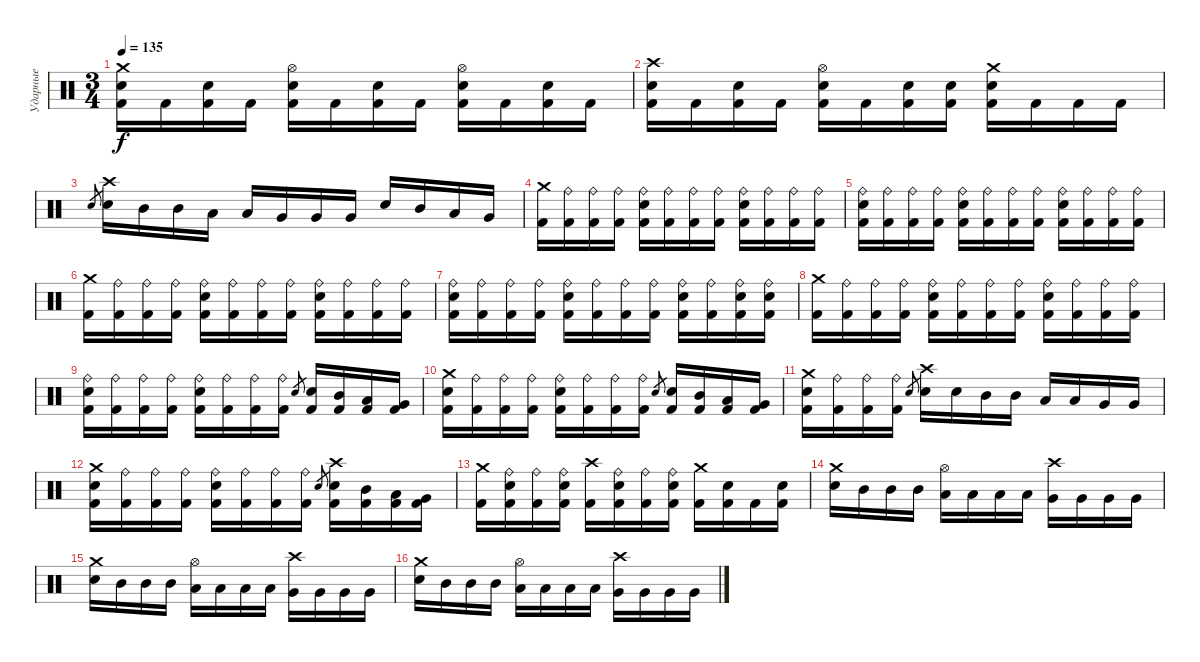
\track ("Ударные" "Ударные") {instrument percussion}
\staff {score}
\articulation defaults
\ts (3 4)
\tempo 135
\clef neutral
\ks c
("Crash medium (hit)" "Electric Snare (hit)" "Kick (hit) 2").16{dy f} "Kick (hit) 2".16 ("Electric Snare (hit)" "Kick (hit) 2").16 "Kick (hit) 2".16 ("Hi-Hat (open)" "Electric Snare (hit)" "Kick (hit) 2").16 "Kick (hit) 2".16 ("Electric Snare (hit)" "Kick (hit) 2").16 "Kick (hit) 2".16 ("Hi-Hat (open)" "Electric Snare (hit)" "Kick (hit) 2").16 "Kick (hit) 2".16 ("Electric Snare (hit)" "Kick (hit) 2").16 "Kick (hit) 2".16 |
("Crash high (hit)" "Electric Snare (hit)" "Kick (hit) 2").16 "Kick (hit) 2".16 ("Electric Snare (hit)" "Kick (hit) 2").16 "Kick (hit) 2".16 ("Hi-Hat (open)" "Electric Snare (hit)" "Kick (hit) 2").16 "Kick (hit) 2".16 ("Electric Snare (hit)" "Kick (hit) 2").16 ("Electric Snare (hit)" "Kick (hit) 2").16 ("Crash medium (hit)" "Electric Snare (hit)" "Kick (hit) 2").16 "Kick (hit) 2".16 "Kick (hit) 2".16 "Kick (hit) 2".16 |
"Electric Snare (hit)".8{gr} ("Crash high (hit)" "Electric Snare (hit)").16 "Mid Tom (hit)".16 "Mid Tom (hit)".16 "Low Tom (hit)".16 "Low Tom (hit)".16 "Very Low Tom (hit)".16 "Very Low Tom (hit)".16 "Very Low Tom (hit)".16 "Electric Snare (hit)".16 "Mid Tom (hit)".16 "Low Tom (hit)".16 "Very Low Tom (hit)".16 |
("Crash medium (hit)" "Kick (hit) 2").16 ("Ride (bell)" "Kick (hit) 2").16 ("Ride (bell)" "Kick (hit) 2").16 ("Ride (bell)" "Kick (hit) 2").16 ("Ride (bell)" "Electric Snare (hit)" "Kick (hit) 2").16 ("Ride (bell)" "Kick (hit) 2").16 ("Ride (bell)" "Kick (hit) 2").16 ("Ride (bell)" "Kick (hit) 2").16 ("Ride (bell)" "Electric Snare (hit)" "Kick (hit) 2").16 ("Ride (bell)" "Kick (hit) 2").16 ("Ride (bell)" "Kick (hit) 2").16 ("Ride (bell)" "Kick (hit) 2").16 |
("Ride (bell)" "Electric Snare (hit)" "Kick (hit) 2").16 ("Ride (bell)" "Kick (hit) 2").16 ("Ride (bell)" "Kick (hit) 2").16 ("Ride (bell)" "Kick (hit) 2").16 ("Ride (bell)" "Electric Snare (hit)" "Kick (hit) 2").16 ("Ride (bell)" "Kick (hit) 2").16 ("Ride (bell)" "Kick (hit) 2").16 ("Ride (bell)" "Kick (hit) 2").16 ("Ride (bell)" "Electric Snare (hit)" "Kick (hit) 2").16 ("Ride (bell)" "Kick (hit) 2").16 ("Ride (bell)" "Kick (hit) 2").16 ("Ride (bell)" "Kick (hit) 2").16 |
("Crash medium (hit)" "Kick (hit) 2").16 ("Ride (bell)" "Kick (hit) 2").16 ("Ride (bell)" "Kick (hit) 2").16 ("Ride (bell)" "Kick (hit) 2").16 ("Ride (bell)" "Electric Snare (hit)" "Kick (hit) 2").16 ("Ride (bell)" "Kick (hit) 2").16 ("Ride (bell)" "Kick (hit) 2").16 ("Ride (bell)" "Kick (hit) 2").16 ("Ride (bell)" "Electric Snare (hit)" "Kick (hit) 2").16 ("Ride (bell)" "Kick (hit) 2").16 ("Ride (bell)" "Kick (hit) 2").16 ("Ride (bell)" "Kick (hit) 2").16 |
("Ride (bell)" "Electric Snare (hit)" "Kick (hit) 2").16 ("Ride (bell)" "Kick (hit) 2").16 ("Ride (bell)" "Kick (hit) 2").16 ("Ride (bell)" "Kick (hit) 2").16 ("Ride (bell)" "Electric Snare (hit)" "Kick (hit) 2").16 ("Ride (bell)" "Kick (hit) 2").16 ("Ride (bell)" "Kick (hit) 2").16 ("Ride (bell)" "Kick (hit) 2").16 ("Ride (bell)" "Electric Snare (hit)" "Kick (hit) 2").16 ("Ride (bell)" "Kick (hit) 2").16 ("Ride (bell)" "Electric Snare (hit)" "Kick (hit) 2").16 ("Ride (bell)" "Electric Snare (hit)" "Kick (hit) 2").16 |
("Crash medium (hit)" "Kick (hit) 2").16 ("Ride (bell)" "Kick (hit) 2").16 ("Ride (bell)" "Kick (hit) 2").16 ("Ride (bell)" "Kick (hit) 2").16 ("Ride (bell)" "Electric Snare (hit)" "Kick (hit) 2").16 ("Ride (bell)" "Kick (hit) 2").16 ("Ride (bell)" "Kick (hit) 2").16 ("Ride (bell)" "Kick (hit) 2").16 ("Ride (bell)" "Electric Snare (hit)" "Kick (hit) 2").16 ("Ride (bell)" "Kick (hit) 2").16 ("Ride (bell)" "Kick (hit) 2").16 ("Ride (bell)" "Kick (hit) 2").16 |
("Ride (bell)" "Electric Snare (hit)" "Kick (hit) 2").16 ("Ride (bell)" "Kick (hit) 2").16 ("Ride (bell)" "Kick (hit) 2").16 ("Ride (bell)" "Kick (hit) 2").16 ("Ride (bell)" "Electric Snare (hit)" "Kick (hit) 2").16 ("Ride (bell)" "Kick (hit) 2").16 ("Ride (bell)" "Kick (hit) 2").16 ("Ride (bell)" "Kick (hit) 2").16 "Electric Snare (hit)".8{gr} ("Electric Snare (hit)" "Kick (hit) 2").16 ("Mid Tom (hit)" "Kick (hit) 2").16 ("Low Tom (hit)" "Kick (hit) 2").16 ("Very Low Tom (hit)" "Kick (hit) 2").16 |
("Crash medium (hit)" "Electric Snare (hit)" "Kick (hit) 2").16 ("Ride (bell)" "Kick (hit) 2").16 ("Ride (bell)" "Kick (hit) 2").16 ("Ride (bell)" "Kick (hit) 2").16 ("Ride (bell)" "Electric Snare (hit)" "Kick (hit) 2").16 ("Ride (bell)" "Kick (hit) 2").16 ("Ride (bell)" "Kick (hit) 2").16 ("Ride (bell)" "Kick (hit) 2").16 "Electric Snare (hit)".8{gr} ("Electric Snare (hit)" "Kick (hit) 2").16 ("Mid Tom (hit)" "Kick (hit) 2").16 ("Low Tom (hit)" "Kick (hit) 2").16 ("Very Low Tom (hit)" "Kick (hit) 2").16 |
("Crash medium (hit)" "Electric Snare (hit)" "Kick (hit) 2").16 ("Ride (bell)" "Kick (hit) 2").16 ("Ride (bell)" "Kick (hit) 2").16 ("Ride (bell)" "Kick (hit) 2").16 "Electric Snare (hit)".8{gr} ("Crash high (hit)" "Electric Snare (hit)").16 "Electric Snare (hit)".16 "Mid Tom (hit)".16 "Mid Tom (hit)".16 "Low Tom (hit)".16 "Low Tom (hit)".16 "Very Low Tom (hit)".16 "Very Low Tom (hit)".16 |
("Crash medium (hit)" "Electric Snare (hit)" "Kick (hit) 2").16 ("Ride (bell)" "Kick (hit) 2").16 ("Ride (bell)" "Kick (hit) 2").16 ("Ride (bell)" "Kick (hit) 2").16 ("Ride (bell)" "Electric Snare (hit)" "Kick (hit) 2").16 ("Ride (bell)" "Kick (hit) 2").16 ("Ride (bell)" "Kick (hit) 2").16 ("Ride (bell)" "Kick (hit) 2").16 "Electric Snare (hit)".8{gr} ("Crash high (hit)" "Electric Snare (hit)" "Kick (hit) 2").16 ("Mid Tom (hit)" "Kick (hit) 2").16 ("Low Tom (hit)" "Kick (hit) 2").16 ("Very Low Tom (hit)" "Kick (hit) 2").16 |
("Crash medium (hit)" "Kick (hit) 2").16 ("Ride (bell)" "Electric Snare (hit)" "Kick (hit) 2").16 ("Ride (bell)" "Kick (hit) 2").16 ("Ride (bell)" "Electric Snare (hit)" "Kick (hit) 2").16 ("Crash high (hit)" "Kick (hit) 2").16 ("Ride (bell)" "Electric Snare (hit)" "Kick (hit) 2").16 ("Ride (bell)" "Kick (hit) 2").16 ("Ride (bell)" "Electric Snare (hit)" "Kick (hit) 2").16 ("Crash medium (hit)" "Kick (hit) 2").16 ("Electric Snare (hit)" "Kick (hit) 2").16 "Kick (hit) 2".16 ("Electric Snare (hit)" "Kick (hit) 2").16 |
("Crash medium (hit)" "Electric Snare (hit)").16 "Mid Tom (hit)".16 "Mid Tom (hit)".16 "Mid Tom (hit)".16 ("Hi-Hat (open)" "Low Tom (hit)").16 "Low Tom (hit)".16 "Low Tom (hit)".16 "Low Tom (hit)".16 ("Crash high (hit)" "Very Low Tom (hit)").16 "Very Low Tom (hit)".16 "Very Low Tom (hit)".16 "Very Low Tom (hit)".16 |
("Crash medium (hit)" "Electric Snare (hit)").16 "Mid Tom (hit)".16 "Mid Tom (hit)".16 "Mid Tom (hit)".16 ("Hi-Hat (open)" "Low Tom (hit)").16 "Low Tom (hit)".16 "Low Tom (hit)".16 "Low Tom (hit)".16 ("Crash high (hit)" "Very Low Tom (hit)").16 "Very Low Tom (hit)".16 "Very Low Tom (hit)".16 "Very Low Tom (hit)".16 |
("Crash medium (hit)" "Electric Snare (hit)").16 "Mid Tom (hit)".16 "Mid Tom (hit)".16 "Mid Tom (hit)".16 ("Hi-Hat (open)" "Low Tom (hit)").16 "Low Tom (hit)".16 "Low Tom (hit)".16 "Low Tom (hit)".16 ("Crash high (hit)" "Very Low Tom (hit)").16 "Very Low Tom (hit)".16 "Very Low Tom (hit)".16 "Very Low Tom (hit)".16
